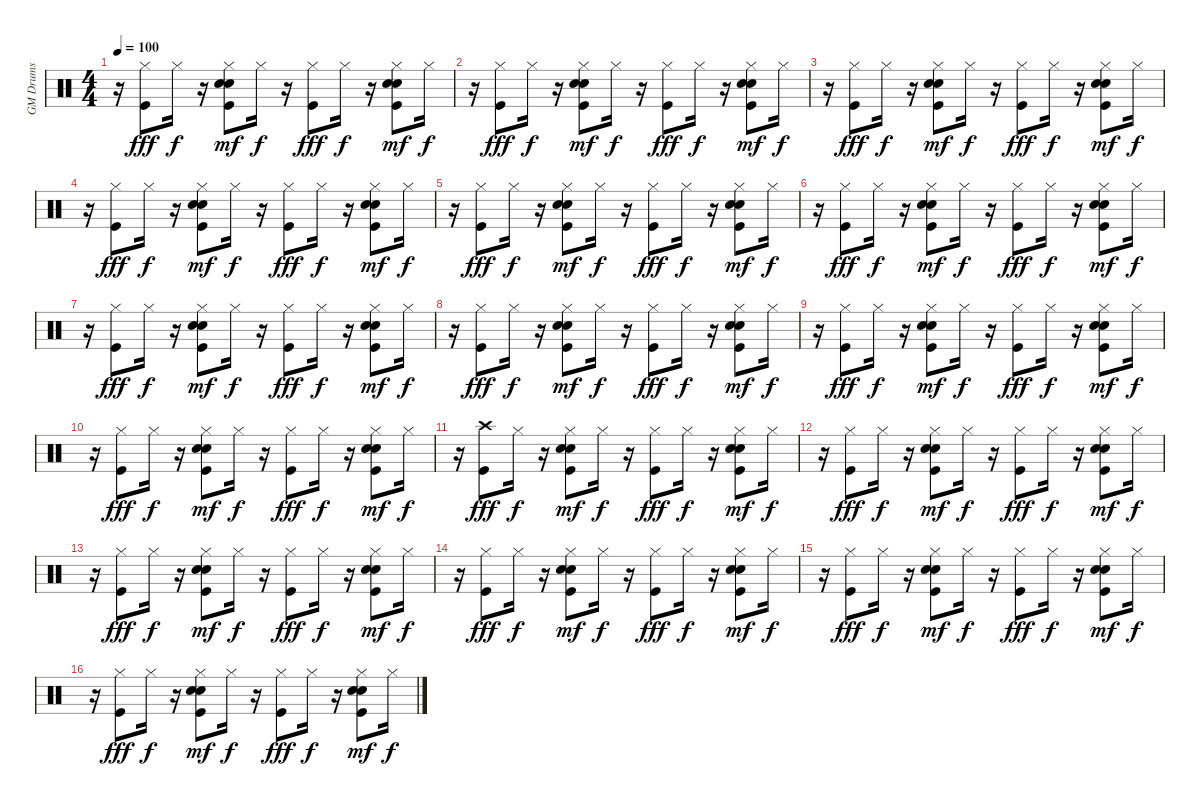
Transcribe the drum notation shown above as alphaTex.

\track ("GM Drums" "GM Drums") {instrument percussion}
\staff {score}
\articulation defaults
\ts (4 4)
\tempo 100
\clef neutral
\ks c
r.16{dy f} ("Kick (hit)" "Hi-Hat (closed)").8{dy fff} "Hi-Hat (closed)".16{dy f} r.16 ("Kick (hit)" "Snare (hit) 2" "Hand Clap (hit)" "Hi-Hat (closed)").8{dy mf} "Hi-Hat (closed)".16{dy f} r.16 ("Kick (hit)" "Hi-Hat (closed)").8{dy fff} "Hi-Hat (closed)".16{dy f} r.16 ("Kick (hit)" "Snare (hit) 2" "Hand Clap (hit)" "Hi-Hat (closed)").8{dy mf} "Hi-Hat (closed)".16{dy f} |
r.16 ("Kick (hit)" "Hi-Hat (closed)").8{dy fff} "Hi-Hat (closed)".16{dy f} r.16 ("Kick (hit)" "Snare (hit) 2" "Hand Clap (hit)" "Hi-Hat (closed)").8{dy mf} "Hi-Hat (closed)".16{dy f} r.16 ("Kick (hit)" "Hi-Hat (closed)").8{dy fff} "Hi-Hat (closed)".16{dy f} r.16 ("Kick (hit)" "Snare (hit) 2" "Hand Clap (hit)" "Hi-Hat (closed)").8{dy mf} "Hi-Hat (closed)".16{dy f} |
r.16 ("Kick (hit)" "Hi-Hat (closed)").8{dy fff} "Hi-Hat (closed)".16{dy f} r.16 ("Kick (hit)" "Snare (hit) 2" "Hand Clap (hit)" "Hi-Hat (closed)").8{dy mf} "Hi-Hat (closed)".16{dy f} r.16 ("Kick (hit)" "Hi-Hat (closed)").8{dy fff} "Hi-Hat (closed)".16{dy f} r.16 ("Kick (hit)" "Snare (hit) 2" "Hand Clap (hit)" "Hi-Hat (closed)").8{dy mf} "Hi-Hat (closed)".16{dy f} |
r.16 ("Kick (hit)" "Hi-Hat (closed)").8{dy fff} "Hi-Hat (closed)".16{dy f} r.16 ("Kick (hit)" "Snare (hit) 2" "Hand Clap (hit)" "Hi-Hat (closed)").8{dy mf} "Hi-Hat (closed)".16{dy f} r.16 ("Kick (hit)" "Hi-Hat (closed)").8{dy fff} "Hi-Hat (closed)".16{dy f} r.16 ("Kick (hit)" "Snare (hit) 2" "Hand Clap (hit)" "Hi-Hat (closed)").8{dy mf} "Hi-Hat (closed)".16{dy f} |
r.16 ("Kick (hit)" "Hi-Hat (closed)").8{dy fff} "Hi-Hat (closed)".16{dy f} r.16 ("Kick (hit)" "Snare (hit) 2" "Hand Clap (hit)" "Hi-Hat (closed)").8{dy mf} "Hi-Hat (closed)".16{dy f} r.16 ("Kick (hit)" "Hi-Hat (closed)").8{dy fff} "Hi-Hat (closed)".16{dy f} r.16 ("Kick (hit)" "Snare (hit) 2" "Hand Clap (hit)" "Hi-Hat (closed)").8{dy mf} "Hi-Hat (closed)".16{dy f} |
r.16 ("Kick (hit)" "Hi-Hat (closed)").8{dy fff} "Hi-Hat (closed)".16{dy f} r.16 ("Kick (hit)" "Snare (hit) 2" "Hand Clap (hit)" "Hi-Hat (closed)").8{dy mf} "Hi-Hat (closed)".16{dy f} r.16 ("Kick (hit)" "Hi-Hat (closed)").8{dy fff} "Hi-Hat (closed)".16{dy f} r.16 ("Kick (hit)" "Snare (hit) 2" "Hand Clap (hit)" "Hi-Hat (closed)").8{dy mf} "Hi-Hat (closed)".16{dy f} |
r.16 ("Kick (hit)" "Hi-Hat (closed)").8{dy fff} "Hi-Hat (closed)".16{dy f} r.16 ("Kick (hit)" "Snare (hit) 2" "Hand Clap (hit)" "Hi-Hat (closed)").8{dy mf} "Hi-Hat (closed)".16{dy f} r.16 ("Kick (hit)" "Hi-Hat (closed)").8{dy fff} "Hi-Hat (closed)".16{dy f} r.16 ("Kick (hit)" "Snare (hit) 2" "Hand Clap (hit)" "Hi-Hat (closed)").8{dy mf} "Hi-Hat (closed)".16{dy f} |
r.16 ("Kick (hit)" "Hi-Hat (closed)").8{dy fff} "Hi-Hat (closed)".16{dy f} r.16 ("Kick (hit)" "Snare (hit) 2" "Hand Clap (hit)" "Hi-Hat (closed)").8{dy mf} "Hi-Hat (closed)".16{dy f} r.16 ("Kick (hit)" "Hi-Hat (closed)").8{dy fff} "Hi-Hat (closed)".16{dy f} r.16 ("Kick (hit)" "Snare (hit) 2" "Hand Clap (hit)" "Hi-Hat (closed)").8{dy mf} "Hi-Hat (closed)".16{dy f} |
r.16 ("Kick (hit)" "Hi-Hat (closed)").8{dy fff} "Hi-Hat (closed)".16{dy f} r.16 ("Kick (hit)" "Snare (hit) 2" "Hand Clap (hit)" "Hi-Hat (closed)").8{dy mf} "Hi-Hat (closed)".16{dy f} r.16 ("Kick (hit)" "Hi-Hat (closed)").8{dy fff} "Hi-Hat (closed)".16{dy f} r.16 ("Kick (hit)" "Snare (hit) 2" "Hand Clap (hit)" "Hi-Hat (closed)").8{dy mf} "Hi-Hat (closed)".16{dy f} |
r.16 ("Kick (hit)" "Hi-Hat (closed)").8{dy fff} "Hi-Hat (closed)".16{dy f} r.16 ("Kick (hit)" "Snare (hit) 2" "Hand Clap (hit)" "Hi-Hat (closed)").8{dy mf} "Hi-Hat (closed)".16{dy f} r.16 ("Kick (hit)" "Hi-Hat (closed)").8{dy fff} "Hi-Hat (closed)".16{dy f} r.16 ("Kick (hit)" "Snare (hit) 2" "Hand Clap (hit)" "Hi-Hat (closed)").8{dy mf} "Hi-Hat (closed)".16{dy f} |
r.16 ("Kick (hit)" "Crash high (hit)").8{dy fff} "Hi-Hat (closed)".16{dy f} r.16 ("Kick (hit)" "Snare (hit) 2" "Hand Clap (hit)" "Hi-Hat (closed)").8{dy mf} "Hi-Hat (closed)".16{dy f} r.16 ("Kick (hit)" "Hi-Hat (closed)").8{dy fff} "Hi-Hat (closed)".16{dy f} r.16 ("Kick (hit)" "Snare (hit) 2" "Hand Clap (hit)" "Hi-Hat (closed)").8{dy mf} "Hi-Hat (closed)".16{dy f} |
r.16 ("Kick (hit)" "Hi-Hat (closed)").8{dy fff} "Hi-Hat (closed)".16{dy f} r.16 ("Kick (hit)" "Snare (hit) 2" "Hand Clap (hit)" "Hi-Hat (closed)").8{dy mf} "Hi-Hat (closed)".16{dy f} r.16 ("Kick (hit)" "Hi-Hat (closed)").8{dy fff} "Hi-Hat (closed)".16{dy f} r.16 ("Kick (hit)" "Snare (hit) 2" "Hand Clap (hit)" "Hi-Hat (closed)").8{dy mf} "Hi-Hat (closed)".16{dy f} |
r.16 ("Kick (hit)" "Hi-Hat (closed)").8{dy fff} "Hi-Hat (closed)".16{dy f} r.16 ("Kick (hit)" "Snare (hit) 2" "Hand Clap (hit)" "Hi-Hat (closed)").8{dy mf} "Hi-Hat (closed)".16{dy f} r.16 ("Kick (hit)" "Hi-Hat (closed)").8{dy fff} "Hi-Hat (closed)".16{dy f} r.16 ("Kick (hit)" "Snare (hit) 2" "Hand Clap (hit)" "Hi-Hat (closed)").8{dy mf} "Hi-Hat (closed)".16{dy f} |
r.16 ("Kick (hit)" "Hi-Hat (closed)").8{dy fff} "Hi-Hat (closed)".16{dy f} r.16 ("Kick (hit)" "Snare (hit) 2" "Hand Clap (hit)" "Hi-Hat (closed)").8{dy mf} "Hi-Hat (closed)".16{dy f} r.16 ("Kick (hit)" "Hi-Hat (closed)").8{dy fff} "Hi-Hat (closed)".16{dy f} r.16 ("Kick (hit)" "Snare (hit) 2" "Hand Clap (hit)" "Hi-Hat (closed)").8{dy mf} "Hi-Hat (closed)".16{dy f} |
r.16 ("Kick (hit)" "Hi-Hat (closed)").8{dy fff} "Hi-Hat (closed)".16{dy f} r.16 ("Kick (hit)" "Snare (hit) 2" "Hand Clap (hit)" "Hi-Hat (closed)").8{dy mf} "Hi-Hat (closed)".16{dy f} r.16 ("Kick (hit)" "Hi-Hat (closed)").8{dy fff} "Hi-Hat (closed)".16{dy f} r.16 ("Kick (hit)" "Snare (hit) 2" "Hand Clap (hit)" "Hi-Hat (closed)").8{dy mf} "Hi-Hat (closed)".16{dy f} |
r.16 ("Kick (hit)" "Hi-Hat (closed)").8{dy fff} "Hi-Hat (closed)".16{dy f} r.16 ("Kick (hit)" "Snare (hit) 2" "Hand Clap (hit)" "Hi-Hat (closed)").8{dy mf} "Hi-Hat (closed)".16{dy f} r.16 ("Kick (hit)" "Hi-Hat (closed)").8{dy fff} "Hi-Hat (closed)".16{dy f} r.16 ("Kick (hit)" "Snare (hit) 2" "Hand Clap (hit)" "Hi-Hat (closed)").8{dy mf} "Hi-Hat (closed)".16{dy f}
